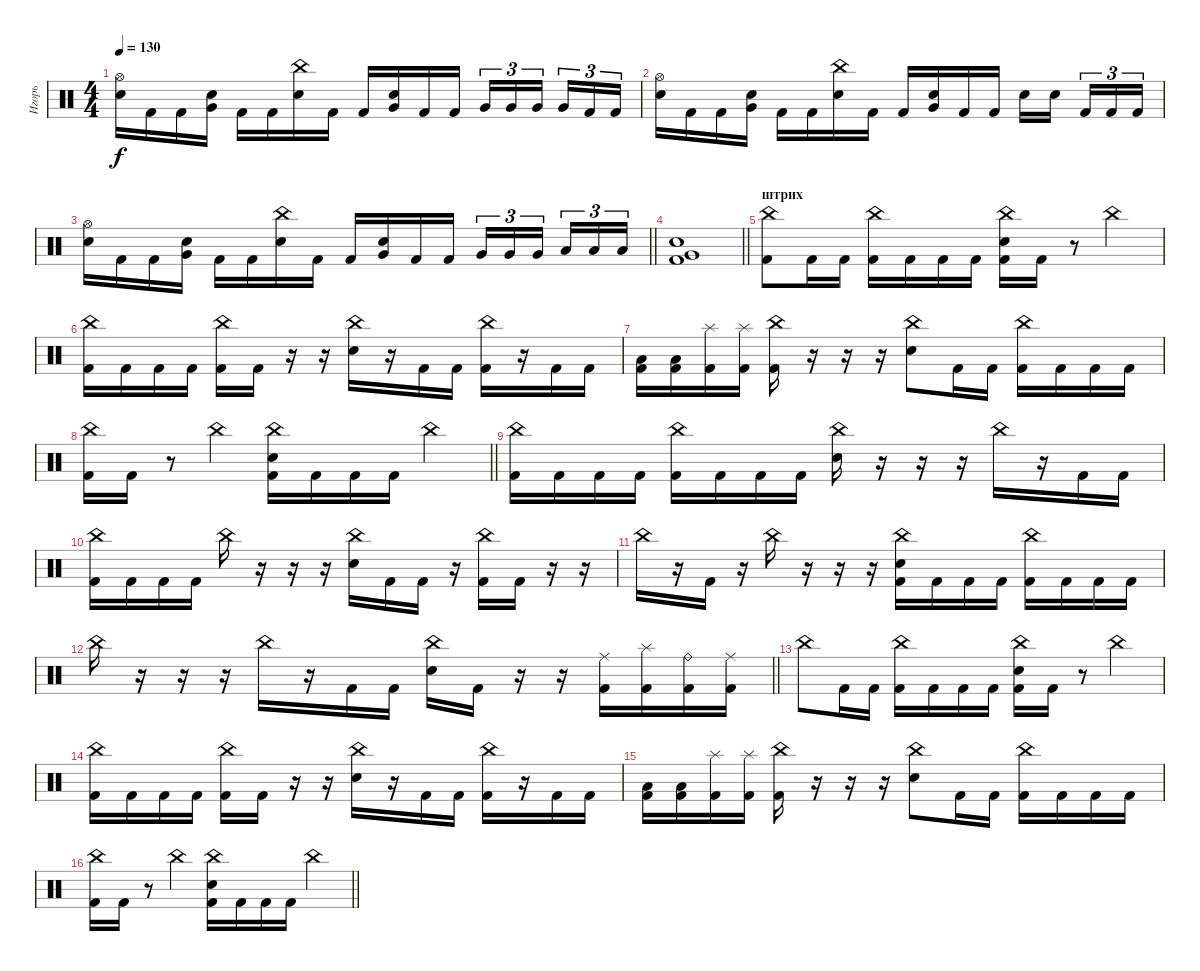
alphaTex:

\track ("Игорь" "Игорь") {instrument percussion}
\staff {score}
\articulation defaults
\ts (4 4)
\tempo 130
\clef neutral
\ks c
("Hi-Hat (open)" "Electric Snare (hit)").16{dy f} "Kick (hit) 2".16 "Kick (hit) 2".16 ("Electric Snare (hit)" "Very Low Tom (hit)").16 "Kick (hit) 2".16 "Kick (hit) 2".16 ("China (hit)" "Electric Snare (hit)").16 "Kick (hit) 2".16 "Kick (hit) 2".16 ("Electric Snare (hit)" "Very Low Tom (hit)").16 "Kick (hit) 2".16 "Kick (hit) 2".16 "Very Low Tom (hit)".16{tu (3 2)} "Very Low Tom (hit)".16{tu (3 2)} "Very Low Tom (hit)".16{tu (3 2) beam splitsecondary} "Very Low Tom (hit)".16{tu (3 2)} "Kick (hit) 2".16{tu (3 2)} "Kick (hit) 2".16{tu (3 2)} |
("Hi-Hat (open)" "Electric Snare (hit)").16 "Kick (hit) 2".16 "Kick (hit) 2".16 ("Electric Snare (hit)" "Very Low Tom (hit)").16 "Kick (hit) 2".16 "Kick (hit) 2".16 ("China (hit)" "Electric Snare (hit)").16 "Kick (hit) 2".16 "Kick (hit) 2".16 ("Electric Snare (hit)" "Very Low Tom (hit)").16 "Kick (hit) 2".16 "Kick (hit) 2".16 "Electric Snare (hit)".16 "Electric Snare (hit)".16{beam splitsecondary} "Kick (hit) 2".16{tu (3 2)} "Kick (hit) 2".16{tu (3 2)} "Kick (hit) 2".16{tu (3 2)} |
\barLineRight lightlight
("Hi-Hat (open)" "Electric Snare (hit)").16 "Kick (hit) 2".16 "Kick (hit) 2".16 ("Electric Snare (hit)" "Very Low Tom (hit)").16 "Kick (hit) 2".16 "Kick (hit) 2".16 ("China (hit)" "Electric Snare (hit)").16 "Kick (hit) 2".16 "Kick (hit) 2".16 ("Electric Snare (hit)" "Very Low Tom (hit)").16 "Kick (hit) 2".16 "Kick (hit) 2".16 "Very Low Tom (hit)".16{tu (3 2)} "Very Low Tom (hit)".16{tu (3 2)} "Very Low Tom (hit)".16{tu (3 2) beam splitsecondary} "Low Tom (hit)".16{tu (3 2)} "Low Tom (hit)".16{tu (3 2)} "Low Tom (hit)".16{tu (3 2)} |
\barLineRight lightlight
("Electric Snare (hit)" "Very Low Tom (hit)" "Kick (hit) 2").1 |
\section ("" "штрих")
("China (hit)" "Kick (hit) 2").8 "Kick (hit) 2".16 "Kick (hit) 2".16 ("China (hit)" "Kick (hit) 2").16 "Kick (hit) 2".16 "Kick (hit) 2".16 "Kick (hit) 2".16 ("China (hit)" "Electric Snare (hit)" "Kick (hit) 2").16 "Kick (hit) 2".16 r.8 "China (hit)".4 |
("China (hit)" "Kick (hit) 2").16 "Kick (hit) 2".16 "Kick (hit) 2".16 "Kick (hit) 2".16 ("China (hit)" "Kick (hit) 2").16 "Kick (hit) 2".16 r.16 r.16 ("China (hit)" "Electric Snare (hit)").16 r.16 "Kick (hit) 2".16 "Kick (hit) 2".16 ("China (hit)" "Kick (hit) 2").16 r.16 "Kick (hit) 2".16 "Kick (hit) 2".16 |
("Low Tom (hit)" "Kick (hit) 2").16 ("Low Tom (hit)" "Kick (hit) 2").16 ("Splash (hit)" "Kick (hit) 2").16 ("Splash (hit)" "Kick (hit) 2").16 ("China (hit)" "Kick (hit) 2").16 r.16 r.16 r.16 ("China (hit)" "Electric Snare (hit)").8 "Kick (hit) 2".16 "Kick (hit) 2".16 ("China (hit)" "Kick (hit) 2").16 "Kick (hit) 2".16 "Kick (hit) 2".16 "Kick (hit) 2".16 |
\barLineRight lightlight
("China (hit)" "Kick (hit) 2").16 "Kick (hit) 2".16 r.8 "China (hit)".4 ("China (hit)" "Electric Snare (hit)" "Kick (hit) 2").16 "Kick (hit) 2".16 "Kick (hit) 2".16 "Kick (hit) 2".16 "China (hit)".4 |
("China (hit)" "Kick (hit) 2").16 "Kick (hit) 2".16 "Kick (hit) 2".16 "Kick (hit) 2".16 ("China (hit)" "Kick (hit) 2").16 "Kick (hit) 2".16 "Kick (hit) 2".16 "Kick (hit) 2".16 ("China (hit)" "Electric Snare (hit)").16 r.16 r.16 r.16 "China (hit)".16 r.16 "Kick (hit) 2".16 "Kick (hit) 2".16 |
("China (hit)" "Kick (hit) 2").16 "Kick (hit) 2".16 "Kick (hit) 2".16 "Kick (hit) 2".16 "China (hit)".16 r.16 r.16 r.16 ("China (hit)" "Electric Snare (hit)").16 "Kick (hit) 2".16 "Kick (hit) 2".16 r.16 ("China (hit)" "Kick (hit) 2").16 "Kick (hit) 2".16 r.16 r.16 |
"China (hit)".16 r.16 "Kick (hit) 2".16 r.16 "China (hit)".16 r.16 r.16 r.16 ("China (hit)" "Electric Snare (hit)" "Kick (hit) 2").16 "Kick (hit) 2".16 "Kick (hit) 2".16 "Kick (hit) 2".16 ("China (hit)" "Kick (hit) 2").16 "Kick (hit) 2".16 "Kick (hit) 2".16 "Kick (hit) 2".16 |
\barLineRight lightlight "China (hit)".16
r.16 r.16 r.16 "China (hit)".16 r.16 "Kick (hit) 2".16 "Kick (hit) 2".16 ("China (hit)" "Electric Snare (hit)").16 "Kick (hit) 2".16 r.16 r.16 ("Ride (middle)" "Kick (hit) 2").16 ("Splash (hit)" "Kick (hit) 2").16 ("Ride (bell)" "Kick (hit) 2").16 ("Ride (middle)" "Kick (hit) 2").16 |
"China (hit)".8 "Kick (hit) 2".16 "Kick (hit) 2".16 ("China (hit)" "Kick (hit) 2").16 "Kick (hit) 2".16 "Kick (hit) 2".16 "Kick (hit) 2".16 ("China (hit)" "Electric Snare (hit)" "Kick (hit) 2").16 "Kick (hit) 2".16 r.8 "China (hit)".4 |
("China (hit)" "Kick (hit) 2").16 "Kick (hit) 2".16 "Kick (hit) 2".16 "Kick (hit) 2".16 ("China (hit)" "Kick (hit) 2").16 "Kick (hit) 2".16 r.16 r.16 ("China (hit)" "Electric Snare (hit)").16 r.16 "Kick (hit) 2".16 "Kick (hit) 2".16 ("China (hit)" "Kick (hit) 2").16 r.16 "Kick (hit) 2".16 "Kick (hit) 2".16 |
("Low Tom (hit)" "Kick (hit) 2").16 ("Low Tom (hit)" "Kick (hit) 2").16 ("Splash (hit)" "Kick (hit) 2").16 ("Splash (hit)" "Kick (hit) 2").16 ("China (hit)" "Kick (hit) 2").16 r.16 r.16 r.16 ("China (hit)" "Electric Snare (hit)").8 "Kick (hit) 2".16 "Kick (hit) 2".16 ("China (hit)" "Kick (hit) 2").16 "Kick (hit) 2".16 "Kick (hit) 2".16 "Kick (hit) 2".16 |
\barLineRight lightlight
("China (hit)" "Kick (hit) 2").16 "Kick (hit) 2".16 r.8 "China (hit)".4 ("China (hit)" "Electric Snare (hit)" "Kick (hit) 2").16 "Kick (hit) 2".16 "Kick (hit) 2".16 "Kick (hit) 2".16 "China (hit)".4
